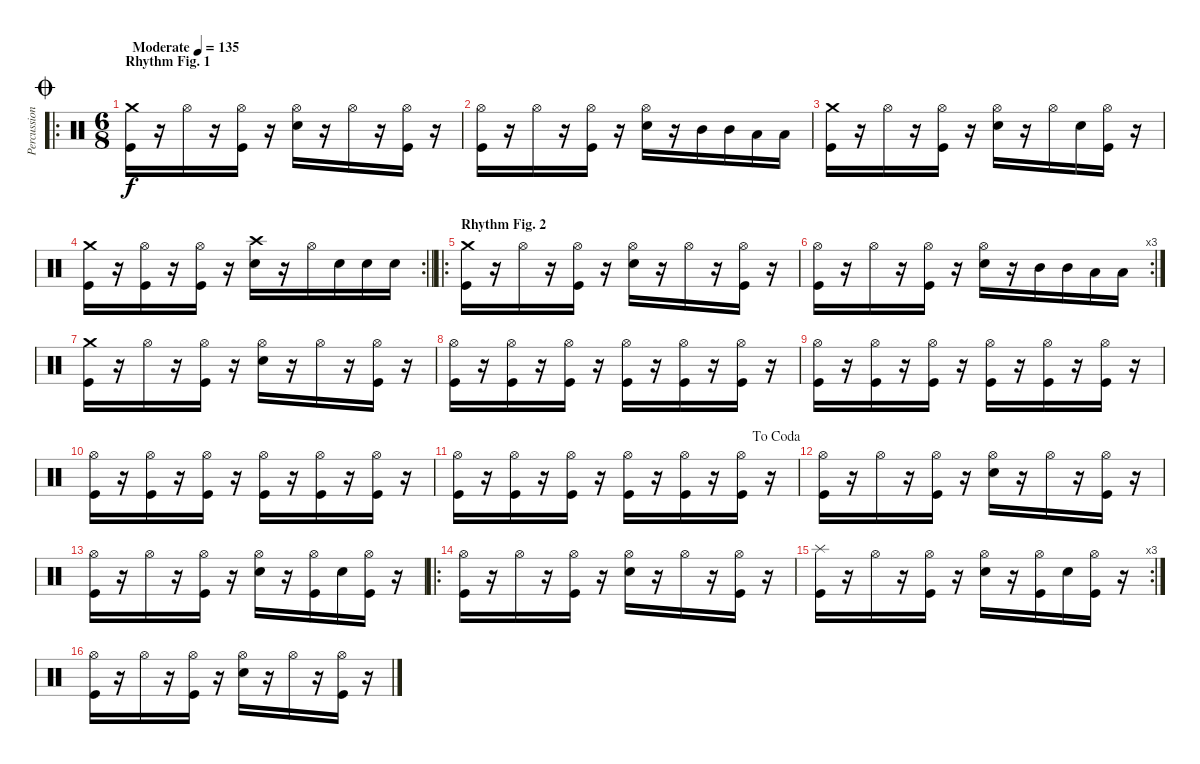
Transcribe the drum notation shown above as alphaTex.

\track ("Percussion" "Percussion") {instrument percussion}
\staff {score}
\articulation defaults
\ro
\ts (6 8)
\section ("" "Rhythm Fig. 1")
\jump coda
\tempo (135 "Moderate")
\clef neutral
\ks c
("Crash medium (hit)" "Kick (hit)").16{dy f} r.16 "Hi-Hat (open)".16 r.16 ("Hi-Hat (open)" "Kick (hit)").16 r.16 ("Hi-Hat (open)" "Snare (hit) 2").16 r.16 "Hi-Hat (open)".16 r.16 ("Hi-Hat (open)" "Kick (hit)").16 r.16 |
("Hi-Hat (open)" "Kick (hit)").16 r.16 "Hi-Hat (open)".16 r.16 ("Hi-Hat (open)" "Kick (hit)").16 r.16 ("Hi-Hat (open)" "Snare (hit) 2").16 r.16 "Mid Tom (hit)".16 "Mid Tom (hit)".16 "Low Tom (hit)".16 "Low Tom (hit)".16 |
("Crash medium (hit)" "Kick (hit)").16 r.16 "Hi-Hat (open)".16 r.16 ("Hi-Hat (open)" "Kick (hit)").16 r.16 ("Hi-Hat (open)" "Snare (hit) 2").16 r.16 "Hi-Hat (open)".16 "Snare (hit) 2".16 ("Hi-Hat (open)" "Kick (hit)").16 r.16 |
\rc 2
\barLineRight lightlight
("Crash medium (hit)" "Kick (hit)").16 r.16 ("Hi-Hat (open)" "Kick (hit)").16 r.16 ("Hi-Hat (open)" "Kick (hit)").16 r.16 ("Crash high (hit)" "Snare (hit) 2").16 r.16 "Hi-Hat (open)".16 "Snare (hit) 2".16 "Snare (hit) 2".16 "Snare (hit) 2".16 |
\ro
\section ("" "Rhythm Fig. 2")
("Crash medium (hit)" "Kick (hit)").16 r.16 "Hi-Hat (open)".16 r.16 ("Hi-Hat (open)" "Kick (hit)").16 r.16 ("Hi-Hat (open)" "Snare (hit) 2").16 r.16 "Hi-Hat (open)".16 r.16 ("Hi-Hat (open)" "Kick (hit)").16 r.16 |
\rc 3
("Hi-Hat (open)" "Kick (hit)").16 r.16 "Hi-Hat (open)".16 r.16 ("Hi-Hat (open)" "Kick (hit)").16 r.16 ("Hi-Hat (open)" "Snare (hit) 2").16 r.16 "Mid Tom (hit)".16 "Mid Tom (hit)".16 "Low Tom (hit)".16 "Low Tom (hit)".16 |
("Crash medium (hit)" "Kick (hit)").16 r.16 "Hi-Hat (open)".16 r.16 ("Hi-Hat (open)" "Kick (hit)").16 r.16 ("Hi-Hat (open)" "Snare (hit) 2").16 r.16 "Hi-Hat (open)".16 r.16 ("Hi-Hat (open)" "Kick (hit)").16 r.16 |
("Hi-Hat (open)" "Kick (hit)").16{volume 3} r.16{volume 13} ("Hi-Hat (open)" "Kick (hit)").16 r.16 ("Hi-Hat (open)" "Kick (hit)").16 r.16 ("Hi-Hat (open)" "Kick (hit)").16 r.16 ("Hi-Hat (open)" "Kick (hit)").16 r.16 ("Hi-Hat (open)" "Kick (hit)").16 r.16 |
("Hi-Hat (open)" "Kick (hit)").16 r.16 ("Hi-Hat (open)" "Kick (hit)").16 r.16 ("Hi-Hat (open)" "Kick (hit)").16 r.16 ("Hi-Hat (open)" "Kick (hit)").16 r.16 ("Hi-Hat (open)" "Kick (hit)").16 r.16 ("Hi-Hat (open)" "Kick (hit)").16 r.16 |
("Hi-Hat (open)" "Kick (hit)").16 r.16 ("Hi-Hat (open)" "Kick (hit)").16 r.16 ("Hi-Hat (open)" "Kick (hit)").16 r.16 ("Hi-Hat (open)" "Kick (hit)").16 r.16 ("Hi-Hat (open)" "Kick (hit)").16 r.16 ("Hi-Hat (open)" "Kick (hit)").16 r.16 |
\jump dacoda
("Hi-Hat (open)" "Kick (hit)").16 r.16 ("Hi-Hat (open)" "Kick (hit)").16 r.16 ("Hi-Hat (open)" "Kick (hit)").16 r.16 ("Hi-Hat (open)" "Kick (hit)").16 r.16 ("Hi-Hat (open)" "Kick (hit)").16 r.16 ("Hi-Hat (open)" "Kick (hit)").16 r.16 |
("Hi-Hat (open)" "Kick (hit)").16 r.16 "Hi-Hat (open)".16 r.16 ("Hi-Hat (open)" "Kick (hit)").16 r.16 ("Hi-Hat (open)" "Snare (hit) 2").16 r.16 "Hi-Hat (open)".16 r.16 ("Hi-Hat (open)" "Kick (hit)").16 r.16 |
("Hi-Hat (open)" "Kick (hit)").16 r.16 "Hi-Hat (open)".16 r.16 ("Hi-Hat (open)" "Kick (hit)").16 r.16 ("Hi-Hat (open)" "Snare (hit) 2").16 r.16 ("Hi-Hat (open)" "Kick (hit)").16 "Snare (hit) 2".16 ("Hi-Hat (open)" "Kick (hit)").16 r.16 |
\ro
("Hi-Hat (open)" "Kick (hit)").16 r.16 "Hi-Hat (open)".16 r.16 ("Hi-Hat (open)" "Kick (hit)").16 r.16 ("Hi-Hat (open)" "Snare (hit) 2").16 r.16 "Hi-Hat (open)".16 r.16 ("Hi-Hat (open)" "Kick (hit)").16 r.16 |
\rc 3
("Splash (hit)" "Kick (hit)").16 r.16 "Hi-Hat (open)".16 r.16 ("Hi-Hat (open)" "Kick (hit)").16 r.16 ("Hi-Hat (open)" "Snare (hit) 2").16 r.16 ("Hi-Hat (open)" "Kick (hit)").16 "Snare (hit) 2".16 ("Hi-Hat (open)" "Kick (hit)").16 r.16 |
("Hi-Hat (open)" "Kick (hit)").16 r.16 "Hi-Hat (open)".16 r.16 ("Hi-Hat (open)" "Kick (hit)").16 r.16 ("Hi-Hat (open)" "Snare (hit) 2").16 r.16 "Hi-Hat (open)".16 r.16 ("Hi-Hat (open)" "Kick (hit)").16 r.16
